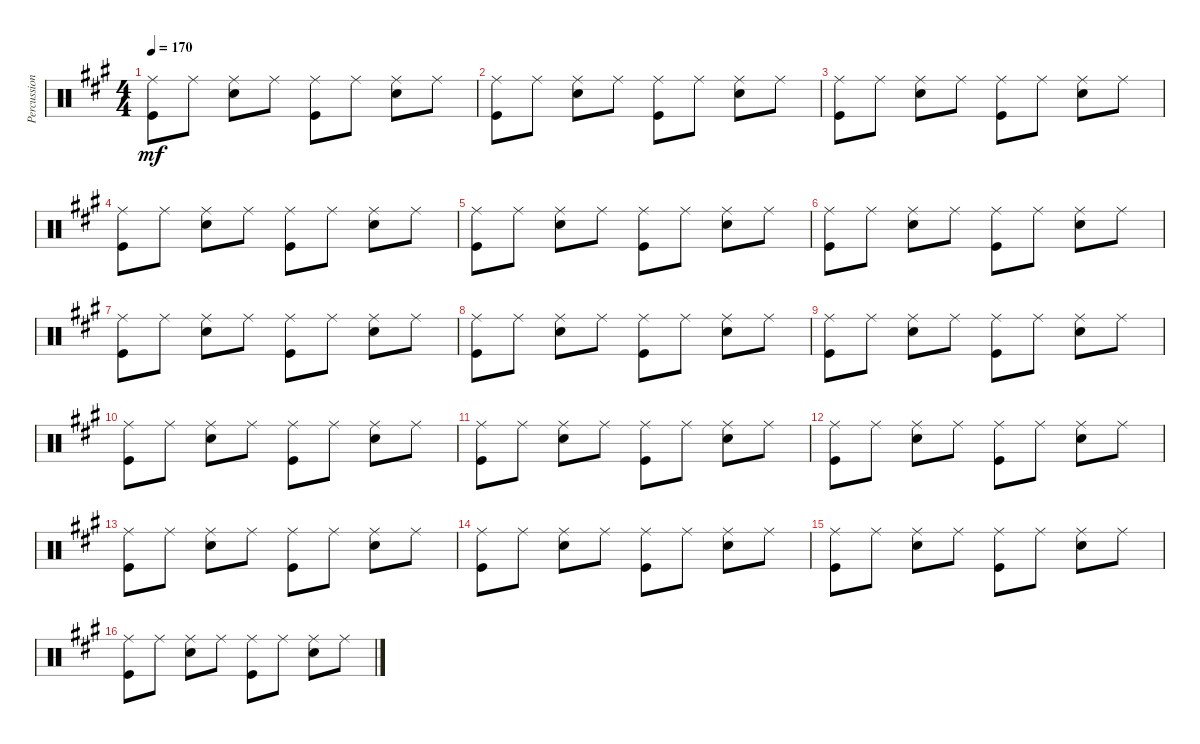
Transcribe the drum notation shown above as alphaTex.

\track ("Percussion" "Percussion") {instrument percussion}
\staff {score}
\articulation defaults
\ts (4 4)
\tempo 170
\clef neutral
\ks a
("Ride (middle)" "Kick (hit)").8{dy mf} "Ride (middle)".8 ("Ride (middle)" "Snare (hit) 2").8 "Ride (middle)".8 ("Ride (middle)" "Kick (hit)").8 "Ride (middle)".8 ("Ride (middle)" "Snare (hit) 2").8 "Ride (middle)".8 |
("Ride (middle)" "Kick (hit)").8 "Ride (middle)".8 ("Ride (middle)" "Snare (hit) 2").8 "Ride (middle)".8 ("Ride (middle)" "Kick (hit)").8 "Ride (middle)".8 ("Ride (middle)" "Snare (hit) 2").8 "Ride (middle)".8 |
("Ride (middle)" "Kick (hit)").8 "Ride (middle)".8 ("Ride (middle)" "Snare (hit) 2").8 "Ride (middle)".8 ("Ride (middle)" "Kick (hit)").8 "Ride (middle)".8 ("Ride (middle)" "Snare (hit) 2").8 "Ride (middle)".8 |
("Ride (middle)" "Kick (hit)").8 "Ride (middle)".8 ("Ride (middle)" "Snare (hit) 2").8 "Ride (middle)".8 ("Ride (middle)" "Kick (hit)").8 "Ride (middle)".8 ("Ride (middle)" "Snare (hit) 2").8 "Ride (middle)".8 |
("Ride (middle)" "Kick (hit)").8 "Ride (middle)".8 ("Ride (middle)" "Snare (hit) 2").8 "Ride (middle)".8 ("Ride (middle)" "Kick (hit)").8 "Ride (middle)".8 ("Ride (middle)" "Snare (hit) 2").8 "Ride (middle)".8 |
("Ride (middle)" "Kick (hit)").8 "Ride (middle)".8 ("Ride (middle)" "Snare (hit) 2").8 "Ride (middle)".8 ("Ride (middle)" "Kick (hit)").8 "Ride (middle)".8 ("Ride (middle)" "Snare (hit) 2").8 "Ride (middle)".8 |
("Ride (middle)" "Kick (hit)").8 "Ride (middle)".8 ("Ride (middle)" "Snare (hit) 2").8 "Ride (middle)".8 ("Ride (middle)" "Kick (hit)").8 "Ride (middle)".8 ("Ride (middle)" "Snare (hit) 2").8 "Ride (middle)".8 |
("Ride (middle)" "Kick (hit)").8 "Ride (middle)".8 ("Ride (middle)" "Snare (hit) 2").8 "Ride (middle)".8 ("Ride (middle)" "Kick (hit)").8 "Ride (middle)".8 ("Ride (middle)" "Snare (hit) 2").8 "Ride (middle)".8 |
("Ride (middle)" "Kick (hit)").8 "Ride (middle)".8 ("Ride (middle)" "Snare (hit) 2").8 "Ride (middle)".8 ("Ride (middle)" "Kick (hit)").8 "Ride (middle)".8 ("Ride (middle)" "Snare (hit) 2").8 "Ride (middle)".8 |
("Ride (middle)" "Kick (hit)").8 "Ride (middle)".8 ("Ride (middle)" "Snare (hit) 2").8 "Ride (middle)".8 ("Ride (middle)" "Kick (hit)").8 "Ride (middle)".8 ("Ride (middle)" "Snare (hit) 2").8 "Ride (middle)".8 |
("Ride (middle)" "Kick (hit)").8 "Ride (middle)".8 ("Ride (middle)" "Snare (hit) 2").8 "Ride (middle)".8 ("Ride (middle)" "Kick (hit)").8 "Ride (middle)".8 ("Ride (middle)" "Snare (hit) 2").8 "Ride (middle)".8 |
("Ride (middle)" "Kick (hit)").8 "Ride (middle)".8 ("Ride (middle)" "Snare (hit) 2").8 "Ride (middle)".8 ("Ride (middle)" "Kick (hit)").8 "Ride (middle)".8 ("Ride (middle)" "Snare (hit) 2").8 "Ride (middle)".8 |
("Ride (middle)" "Kick (hit)").8 "Ride (middle)".8 ("Ride (middle)" "Snare (hit) 2").8 "Ride (middle)".8 ("Ride (middle)" "Kick (hit)").8 "Ride (middle)".8 ("Ride (middle)" "Snare (hit) 2").8 "Ride (middle)".8 |
("Ride (middle)" "Kick (hit)").8 "Ride (middle)".8 ("Ride (middle)" "Snare (hit) 2").8 "Ride (middle)".8 ("Ride (middle)" "Kick (hit)").8 "Ride (middle)".8 ("Ride (middle)" "Snare (hit) 2").8 "Ride (middle)".8 |
("Ride (middle)" "Kick (hit)").8 "Ride (middle)".8 ("Ride (middle)" "Snare (hit) 2").8 "Ride (middle)".8 ("Ride (middle)" "Kick (hit)").8 "Ride (middle)".8 ("Ride (middle)" "Snare (hit) 2").8 "Ride (middle)".8 |
("Ride (middle)" "Kick (hit)").8 "Ride (middle)".8 ("Ride (middle)" "Snare (hit) 2").8 "Ride (middle)".8 ("Ride (middle)" "Kick (hit)").8 "Ride (middle)".8 ("Ride (middle)" "Snare (hit) 2").8 "Ride (middle)".8
